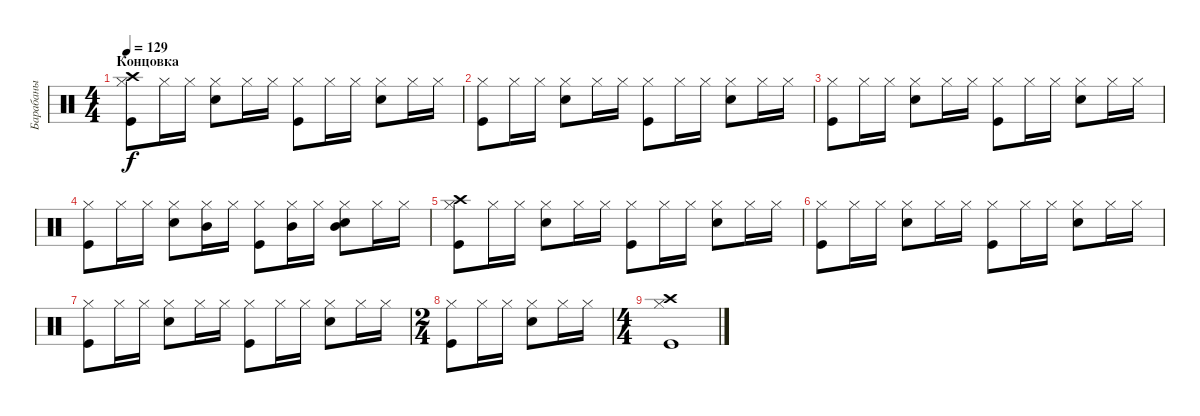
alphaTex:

\track ("Барабаны" "Барабаны") {instrument percussion}
\staff {score}
\articulation defaults
\ts (4 4)
\section ("" "Концовка")
\tempo 129
\clef neutral
\ks c
("Kick (hit)" "Hi-Hat (closed)" "Crash high (hit)").8{dy f} "Hi-Hat (closed)".16 "Hi-Hat (closed)".16 ("Snare (hit) 2" "Hi-Hat (closed)").8 "Hi-Hat (closed)".16 "Hi-Hat (closed)".16 ("Kick (hit)" "Hi-Hat (closed)").8 "Hi-Hat (closed)".16 "Hi-Hat (closed)".16 ("Snare (hit) 2" "Hi-Hat (closed)").8 "Hi-Hat (closed)".16 "Hi-Hat (closed)".16 |
("Kick (hit)" "Hi-Hat (closed)").8 "Hi-Hat (closed)".16 "Hi-Hat (closed)".16 ("Snare (hit) 2" "Hi-Hat (closed)").8 "Hi-Hat (closed)".16 "Hi-Hat (closed)".16 ("Kick (hit)" "Hi-Hat (closed)").8 "Hi-Hat (closed)".16 "Hi-Hat (closed)".16 ("Snare (hit) 2" "Hi-Hat (closed)").8 "Hi-Hat (closed)".16 "Hi-Hat (closed)".16 |
("Kick (hit)" "Hi-Hat (closed)").8 "Hi-Hat (closed)".16 "Hi-Hat (closed)".16 ("Snare (hit) 2" "Hi-Hat (closed)").8 "Hi-Hat (closed)".16 "Hi-Hat (closed)".16 ("Kick (hit)" "Hi-Hat (closed)").8 "Hi-Hat (closed)".16 "Hi-Hat (closed)".16 ("Snare (hit) 2" "Hi-Hat (closed)").8 "Hi-Hat (closed)".16 "Hi-Hat (closed)".16 |
("Kick (hit)" "Hi-Hat (closed)").8 "Hi-Hat (closed)".16 "Hi-Hat (closed)".16 ("Snare (hit) 2" "Hi-Hat (closed)").8 ("Hi-Hat (closed)" "Mid Tom (hit)").16 "Hi-Hat (closed)".16 ("Kick (hit)" "Hi-Hat (closed)").8 ("Hi-Hat (closed)" "Mid Tom (hit)").16 "Hi-Hat (closed)".16 ("Snare (hit) 2" "Hi-Hat (closed)" "Mid Tom (hit)").8 "Hi-Hat (closed)".16 "Hi-Hat (closed)".16 |
("Kick (hit)" "Hi-Hat (closed)" "Crash high (hit)").8 "Hi-Hat (closed)".16 "Hi-Hat (closed)".16 ("Snare (hit) 2" "Hi-Hat (closed)").8 "Hi-Hat (closed)".16 "Hi-Hat (closed)".16 ("Kick (hit)" "Hi-Hat (closed)").8 "Hi-Hat (closed)".16 "Hi-Hat (closed)".16 ("Snare (hit) 2" "Hi-Hat (closed)").8 "Hi-Hat (closed)".16 "Hi-Hat (closed)".16 |
("Kick (hit)" "Hi-Hat (closed)").8 "Hi-Hat (closed)".16 "Hi-Hat (closed)".16 ("Snare (hit) 2" "Hi-Hat (closed)").8 "Hi-Hat (closed)".16 "Hi-Hat (closed)".16 ("Kick (hit)" "Hi-Hat (closed)").8 "Hi-Hat (closed)".16 "Hi-Hat (closed)".16 ("Snare (hit) 2" "Hi-Hat (closed)").8 "Hi-Hat (closed)".16 "Hi-Hat (closed)".16 |
("Kick (hit)" "Hi-Hat (closed)").8 "Hi-Hat (closed)".16 "Hi-Hat (closed)".16 ("Snare (hit) 2" "Hi-Hat (closed)").8 "Hi-Hat (closed)".16 "Hi-Hat (closed)".16 ("Kick (hit)" "Hi-Hat (closed)").8 "Hi-Hat (closed)".16 "Hi-Hat (closed)".16 ("Snare (hit) 2" "Hi-Hat (closed)").8 "Hi-Hat (closed)".16 "Hi-Hat (closed)".16 |
\ts (2 4)
("Kick (hit)" "Hi-Hat (closed)").8 "Hi-Hat (closed)".16 "Hi-Hat (closed)".16 ("Snare (hit) 2" "Hi-Hat (closed)").8 "Hi-Hat (closed)".16 "Hi-Hat (closed)".16 |
\ts (4 4)
("Kick (hit)" "Hi-Hat (closed)" "Crash high (hit)").1
